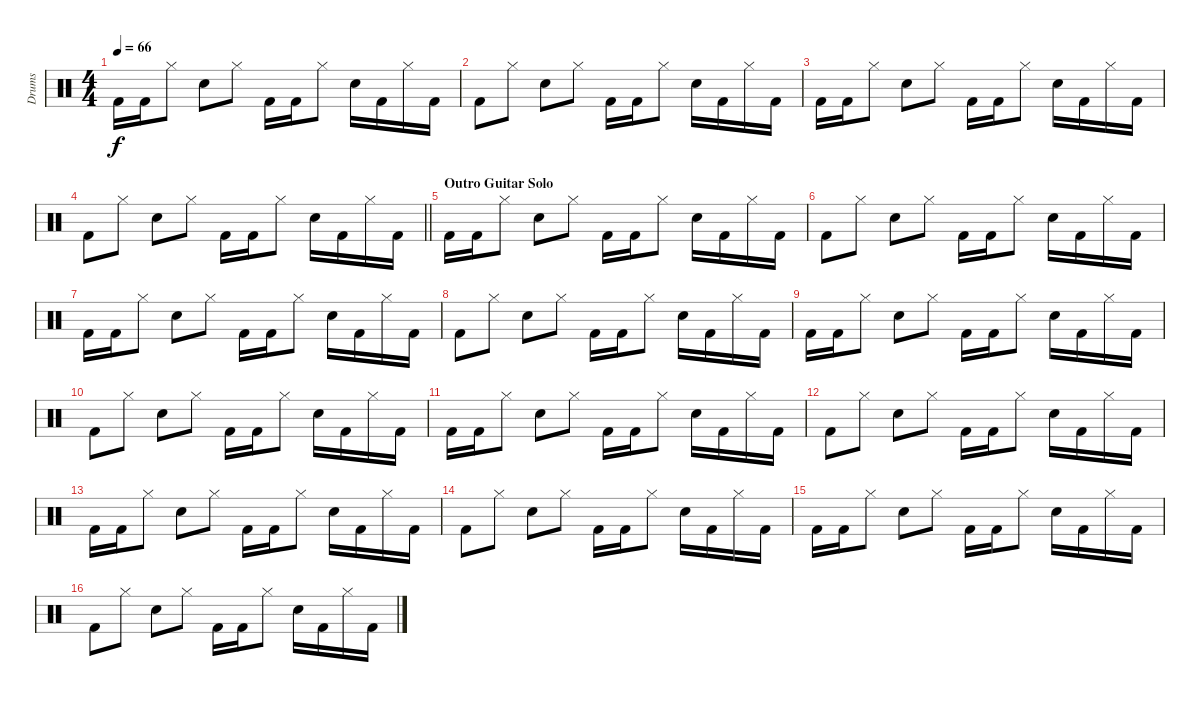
\track ("Drums" "Drums") {instrument percussion}
\staff {score}
\articulation defaults
\ts (4 4)
\tempo 66
\clef neutral
\ks c "Kick (hit) 2".16{dy f} "Kick (hit) 2".16 "Hi-Hat (closed)".8 "Snare (hit) 2".8 "Hi-Hat (closed)".8 "Kick (hit) 2".16 "Kick (hit) 2".16 "Hi-Hat (closed)".8 "Snare (hit) 2".16 "Kick (hit) 2".16 "Hi-Hat (closed)".16 "Kick (hit) 2".16
|
"Kick (hit) 2".8 "Hi-Hat (closed)".8 "Snare (hit) 2".8 "Hi-Hat (closed)".8 "Kick (hit) 2".16 "Kick (hit) 2".16 "Hi-Hat (closed)".8 "Snare (hit) 2".16 "Kick (hit) 2".16 "Hi-Hat (closed)".16 "Kick (hit) 2".16 |
"Kick (hit) 2".16 "Kick (hit) 2".16 "Hi-Hat (closed)".8 "Snare (hit) 2".8 "Hi-Hat (closed)".8 "Kick (hit) 2".16 "Kick (hit) 2".16 "Hi-Hat (closed)".8 "Snare (hit) 2".16 "Kick (hit) 2".16 "Hi-Hat (closed)".16 "Kick (hit) 2".16 |
\barLineRight lightlight "Kick (hit) 2".8 "Hi-Hat (closed)".8 "Snare (hit) 2".8 "Hi-Hat (closed)".8 "Kick (hit) 2".16 "Kick (hit) 2".16 "Hi-Hat (closed)".8 "Snare (hit) 2".16 "Kick (hit) 2".16 "Hi-Hat (closed)".16 "Kick (hit) 2".16
|
\section ("" "Outro Guitar Solo")
"Kick (hit) 2".16 "Kick (hit) 2".16 "Hi-Hat (closed)".8 "Snare (hit) 2".8 "Hi-Hat (closed)".8 "Kick (hit) 2".16 "Kick (hit) 2".16 "Hi-Hat (closed)".8 "Snare (hit) 2".16 "Kick (hit) 2".16 "Hi-Hat (closed)".16 "Kick (hit) 2".16 |
"Kick (hit) 2".8 "Hi-Hat (closed)".8 "Snare (hit) 2".8 "Hi-Hat (closed)".8 "Kick (hit) 2".16 "Kick (hit) 2".16 "Hi-Hat (closed)".8 "Snare (hit) 2".16 "Kick (hit) 2".16 "Hi-Hat (closed)".16 "Kick (hit) 2".16 |
"Kick (hit) 2".16 "Kick (hit) 2".16 "Hi-Hat (closed)".8 "Snare (hit) 2".8 "Hi-Hat (closed)".8 "Kick (hit) 2".16 "Kick (hit) 2".16 "Hi-Hat (closed)".8 "Snare (hit) 2".16 "Kick (hit) 2".16 "Hi-Hat (closed)".16 "Kick (hit) 2".16 |
"Kick (hit) 2".8 "Hi-Hat (closed)".8 "Snare (hit) 2".8 "Hi-Hat (closed)".8 "Kick (hit) 2".16 "Kick (hit) 2".16 "Hi-Hat (closed)".8 "Snare (hit) 2".16 "Kick (hit) 2".16 "Hi-Hat (closed)".16 "Kick (hit) 2".16 |
"Kick (hit) 2".16 "Kick (hit) 2".16 "Hi-Hat (closed)".8 "Snare (hit) 2".8 "Hi-Hat (closed)".8 "Kick (hit) 2".16 "Kick (hit) 2".16 "Hi-Hat (closed)".8 "Snare (hit) 2".16 "Kick (hit) 2".16 "Hi-Hat (closed)".16 "Kick (hit) 2".16 |
"Kick (hit) 2".8 "Hi-Hat (closed)".8 "Snare (hit) 2".8 "Hi-Hat (closed)".8 "Kick (hit) 2".16 "Kick (hit) 2".16 "Hi-Hat (closed)".8 "Snare (hit) 2".16 "Kick (hit) 2".16 "Hi-Hat (closed)".16 "Kick (hit) 2".16 |
"Kick (hit) 2".16 "Kick (hit) 2".16 "Hi-Hat (closed)".8 "Snare (hit) 2".8 "Hi-Hat (closed)".8 "Kick (hit) 2".16 "Kick (hit) 2".16 "Hi-Hat (closed)".8 "Snare (hit) 2".16 "Kick (hit) 2".16 "Hi-Hat (closed)".16 "Kick (hit) 2".16 |
"Kick (hit) 2".8 "Hi-Hat (closed)".8 "Snare (hit) 2".8 "Hi-Hat (closed)".8 "Kick (hit) 2".16 "Kick (hit) 2".16 "Hi-Hat (closed)".8 "Snare (hit) 2".16 "Kick (hit) 2".16 "Hi-Hat (closed)".16 "Kick (hit) 2".16 |
"Kick (hit) 2".16 "Kick (hit) 2".16 "Hi-Hat (closed)".8 "Snare (hit) 2".8 "Hi-Hat (closed)".8 "Kick (hit) 2".16 "Kick (hit) 2".16 "Hi-Hat (closed)".8 "Snare (hit) 2".16 "Kick (hit) 2".16 "Hi-Hat (closed)".16 "Kick (hit) 2".16 |
"Kick (hit) 2".8 "Hi-Hat (closed)".8 "Snare (hit) 2".8 "Hi-Hat (closed)".8 "Kick (hit) 2".16 "Kick (hit) 2".16 "Hi-Hat (closed)".8 "Snare (hit) 2".16 "Kick (hit) 2".16 "Hi-Hat (closed)".16 "Kick (hit) 2".16 |
"Kick (hit) 2".16 "Kick (hit) 2".16 "Hi-Hat (closed)".8 "Snare (hit) 2".8 "Hi-Hat (closed)".8 "Kick (hit) 2".16 "Kick (hit) 2".16 "Hi-Hat (closed)".8 "Snare (hit) 2".16 "Kick (hit) 2".16 "Hi-Hat (closed)".16 "Kick (hit) 2".16 |
"Kick (hit) 2".8 "Hi-Hat (closed)".8 "Snare (hit) 2".8 "Hi-Hat (closed)".8 "Kick (hit) 2".16 "Kick (hit) 2".16 "Hi-Hat (closed)".8 "Snare (hit) 2".16 "Kick (hit) 2".16 "Hi-Hat (closed)".16 "Kick (hit) 2".16
